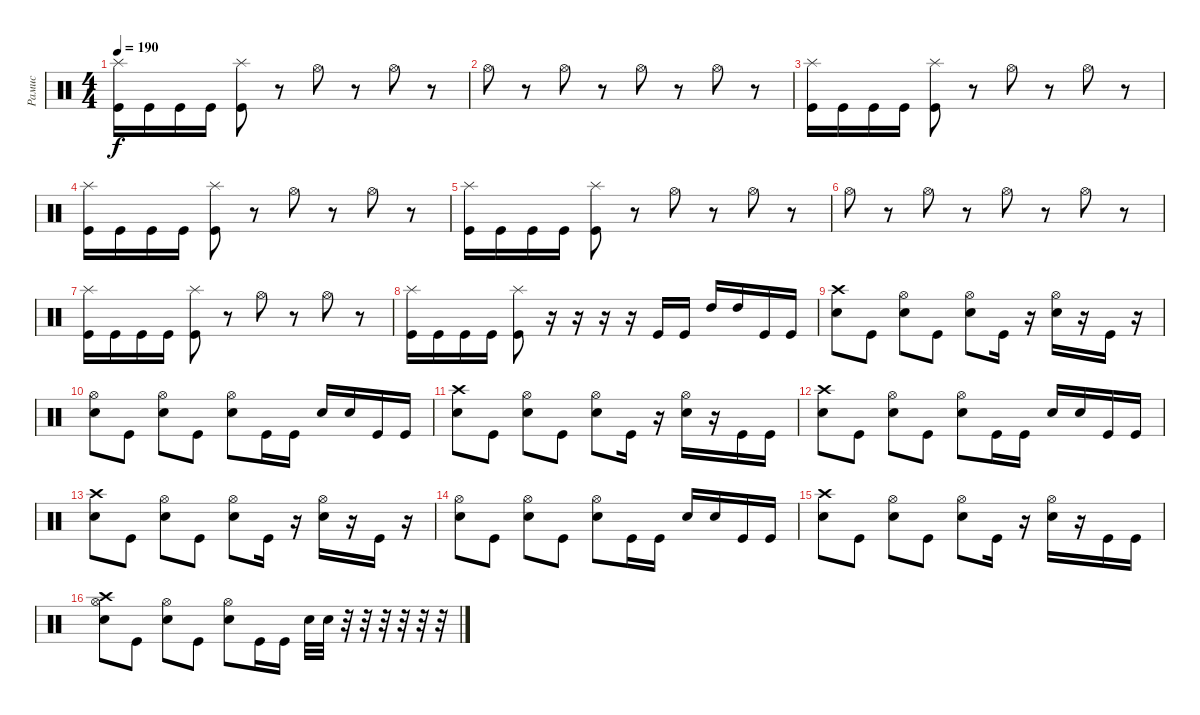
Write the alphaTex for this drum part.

\track ("Рамис" "Рамис") {instrument percussion}
\staff {score}
\articulation defaults
\ts (4 4)
\tempo 190
\clef neutral
\ks c
("Splash (hit)" "Kick (hit)").16{dy f} "Kick (hit)".16 "Kick (hit)".16 "Kick (hit)".16 ("Splash (hit)" "Kick (hit)").8 r.8 "Hi-Hat (open)".8 r.8 "Hi-Hat (open)".8 r.8 |
"Hi-Hat (open)".8 r.8 "Hi-Hat (open)".8 r.8 "Hi-Hat (open)".8 r.8 "Hi-Hat (open)".8 r.8 |
("Splash (hit)" "Kick (hit)").16 "Kick (hit)".16 "Kick (hit)".16 "Kick (hit)".16 ("Splash (hit)" "Kick (hit)").8 r.8 "Hi-Hat (open)".8 r.8 "Hi-Hat (open)".8 r.8 |
("Splash (hit)" "Kick (hit)").16 "Kick (hit)".16 "Kick (hit)".16 "Kick (hit)".16 ("Splash (hit)" "Kick (hit)").8 r.8 "Hi-Hat (open)".8 r.8 "Hi-Hat (open)".8 r.8 |
("Splash (hit)" "Kick (hit)").16 "Kick (hit)".16 "Kick (hit)".16 "Kick (hit)".16 ("Splash (hit)" "Kick (hit)").8 r.8 "Hi-Hat (open)".8 r.8 "Hi-Hat (open)".8 r.8 |
"Hi-Hat (open)".8 r.8 "Hi-Hat (open)".8 r.8 "Hi-Hat (open)".8 r.8 "Hi-Hat (open)".8 r.8 |
("Splash (hit)" "Kick (hit)").16 "Kick (hit)".16 "Kick (hit)".16 "Kick (hit)".16 ("Splash (hit)" "Kick (hit)").8 r.8 "Hi-Hat (open)".8 r.8 "Hi-Hat (open)".8 r.8 |
("Splash (hit)" "Kick (hit)").16 "Kick (hit)".16 "Kick (hit)".16 "Kick (hit)".16 ("Splash (hit)" "Kick (hit)").8 r.16 r.16 r.16 r.16 "Kick (hit)".16 "Kick (hit)".16 "High Tom (hit)".16 "High Tom (hit)".16 "Kick (hit)".16 "Kick (hit)".16 |
("Crash high (hit)" "Electric Snare (hit)").8 "Kick (hit)".8 ("Hi-Hat (open)" "Electric Snare (hit)").8 "Kick (hit)".8 ("Hi-Hat (open)" "Electric Snare (hit)").8 "Kick (hit)".16 r.16 ("Hi-Hat (open)" "Electric Snare (hit)").16 r.16 "Kick (hit)".16 r.16 |
("Hi-Hat (open)" "Electric Snare (hit)").8 "Kick (hit)".8 ("Hi-Hat (open)" "Electric Snare (hit)").8 "Kick (hit)".8 ("Hi-Hat (open)" "Electric Snare (hit)").8 "Kick (hit)".16 "Kick (hit)".16 "Electric Snare (hit)".16 "Electric Snare (hit)".16 "Kick (hit)".16 "Kick (hit)".16 |
("Crash high (hit)" "Electric Snare (hit)").8 "Kick (hit)".8 ("Hi-Hat (open)" "Electric Snare (hit)").8 "Kick (hit)".8 ("Hi-Hat (open)" "Electric Snare (hit)").8 "Kick (hit)".16 r.16 ("Hi-Hat (open)" "Electric Snare (hit)").16 r.16 "Kick (hit)".16 "Kick (hit)".16 |
("Crash high (hit)" "Electric Snare (hit)").8 "Kick (hit)".8 ("Hi-Hat (open)" "Electric Snare (hit)").8 "Kick (hit)".8 ("Hi-Hat (open)" "Electric Snare (hit)").8 "Kick (hit)".16 "Kick (hit)".16 "Electric Snare (hit)".16 "Electric Snare (hit)".16 "Kick (hit)".16 "Kick (hit)".16 |
("Crash high (hit)" "Electric Snare (hit)").8 "Kick (hit)".8 ("Hi-Hat (open)" "Electric Snare (hit)").8 "Kick (hit)".8 ("Hi-Hat (open)" "Electric Snare (hit)").8 "Kick (hit)".16 r.16 ("Hi-Hat (open)" "Electric Snare (hit)").16 r.16 "Kick (hit)".16 r.16 |
("Hi-Hat (open)" "Electric Snare (hit)").8 "Kick (hit)".8 ("Hi-Hat (open)" "Electric Snare (hit)").8 "Kick (hit)".8 ("Hi-Hat (open)" "Electric Snare (hit)").8 "Kick (hit)".16 "Kick (hit)".16 "Electric Snare (hit)".16 "Electric Snare (hit)".16 "Kick (hit)".16 "Kick (hit)".16 |
("Crash high (hit)" "Electric Snare (hit)").8 "Kick (hit)".8 ("Hi-Hat (open)" "Electric Snare (hit)").8 "Kick (hit)".8 ("Hi-Hat (open)" "Electric Snare (hit)").8 "Kick (hit)".16 r.16 ("Hi-Hat (open)" "Electric Snare (hit)").16 r.16 "Kick (hit)".16 "Kick (hit)".16 |
("Crash high (hit)" "Hi-Hat (open)" "Electric Snare (hit)").8 "Kick (hit)".8 ("Hi-Hat (open)" "Electric Snare (hit)").8 "Kick (hit)".8 ("Hi-Hat (open)" "Electric Snare (hit)").8 "Kick (hit)".16 "Kick (hit)".16 "Electric Snare (hit)".32 "Electric Snare (hit)".32 r.32 r.32 r.32 r.32 r.32 r.32
